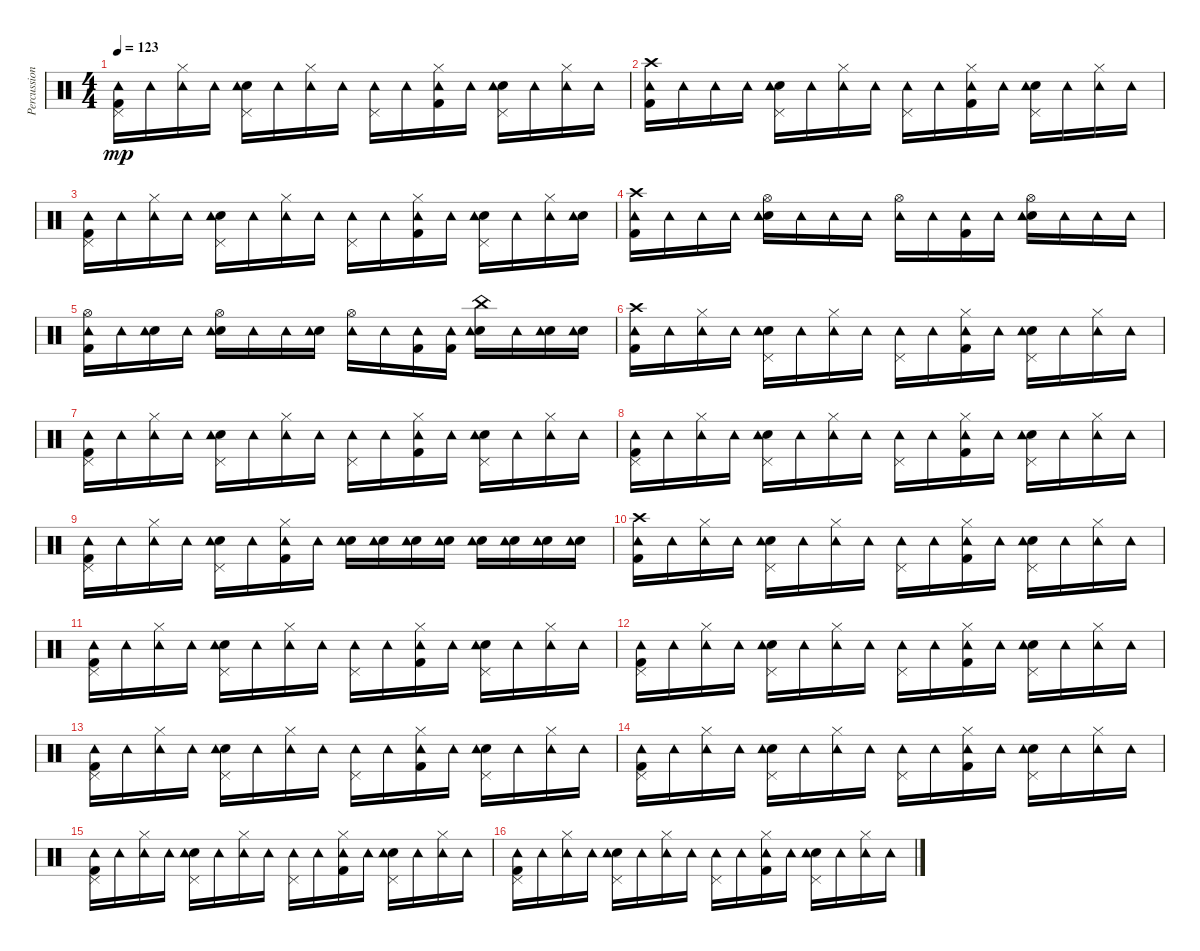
\track ("Percussions" "Percussion") {instrument percussion}
\staff {score}
\articulation defaults
\ts (4 4)
\tempo 123
\clef neutral
\ks c
("Kick (hit) 2" "Pedal Hi-Hat (hit)" "Tambourine (hit)").16{dy mp} "Tambourine (hit)".16 ("Hi-Hat (closed)" "Tambourine (hit)").16 "Tambourine (hit)".16 ("Snare (hit) 2" "Pedal Hi-Hat (hit)" "Tambourine (hit)").16 "Tambourine (hit)".16 ("Hi-Hat (closed)" "Tambourine (hit)").16 "Tambourine (hit)".16 ("Pedal Hi-Hat (hit)" "Tambourine (hit)").16 "Tambourine (hit)".16 ("Kick (hit) 2" "Hi-Hat (closed)" "Tambourine (hit)").16 "Tambourine (hit)".16 ("Snare (hit) 2" "Pedal Hi-Hat (hit)" "Tambourine (hit)").16 "Tambourine (hit)".16 ("Hi-Hat (closed)" "Tambourine (hit)").16 "Tambourine (hit)".16 |
("Kick (hit) 2" "Crash high (hit)" "Tambourine (hit)").16 "Tambourine (hit)".16 "Tambourine (hit)".16 "Tambourine (hit)".16 ("Snare (hit) 2" "Pedal Hi-Hat (hit)" "Tambourine (hit)").16 "Tambourine (hit)".16 ("Hi-Hat (closed)" "Tambourine (hit)").16 "Tambourine (hit)".16 ("Pedal Hi-Hat (hit)" "Tambourine (hit)").16 "Tambourine (hit)".16 ("Kick (hit) 2" "Hi-Hat (closed)" "Tambourine (hit)").16 "Tambourine (hit)".16 ("Snare (hit) 2" "Pedal Hi-Hat (hit)" "Tambourine (hit)").16 "Tambourine (hit)".16 ("Hi-Hat (closed)" "Tambourine (hit)").16 "Tambourine (hit)".16 |
("Kick (hit) 2" "Pedal Hi-Hat (hit)" "Tambourine (hit)").16 "Tambourine (hit)".16 ("Hi-Hat (closed)" "Tambourine (hit)").16 "Tambourine (hit)".16 ("Snare (hit) 2" "Pedal Hi-Hat (hit)" "Tambourine (hit)").16 "Tambourine (hit)".16 ("Hi-Hat (closed)" "Tambourine (hit)").16 "Tambourine (hit)".16 ("Pedal Hi-Hat (hit)" "Tambourine (hit)").16 "Tambourine (hit)".16 ("Kick (hit) 2" "Hi-Hat (closed)" "Tambourine (hit)").16 "Tambourine (hit)".16 ("Snare (hit) 2" "Pedal Hi-Hat (hit)" "Tambourine (hit)").16 "Tambourine (hit)".16 ("Hi-Hat (closed)" "Tambourine (hit)").16 ("Snare (hit) 2" "Tambourine (hit)").16 |
("Kick (hit) 2" "Crash high (hit)" "Tambourine (hit)").16 "Tambourine (hit)".16 "Tambourine (hit)".16 "Tambourine (hit)".16 ("Snare (hit) 2" "Hi-Hat (open)" "Tambourine (hit)").16 "Tambourine (hit)".16 "Tambourine (hit)".16 "Tambourine (hit)".16 ("Hi-Hat (open)" "Tambourine (hit)").16 "Tambourine (hit)".16 ("Kick (hit) 2" "Tambourine (hit)").16 "Tambourine (hit)".16 ("Snare (hit) 2" "Hi-Hat (open)" "Tambourine (hit)").16 "Tambourine (hit)".16 "Tambourine (hit)".16 "Tambourine (hit)".16 |
("Kick (hit) 2" "Hi-Hat (open)" "Tambourine (hit)").16 "Tambourine (hit)".16 ("Snare (hit) 2" "Tambourine (hit)").16 "Tambourine (hit)".16 ("Snare (hit) 2" "Hi-Hat (open)" "Tambourine (hit)").16 "Tambourine (hit)".16 "Tambourine (hit)".16 ("Snare (hit) 2" "Tambourine (hit)").16 ("Hi-Hat (open)" "Tambourine (hit)").16 "Tambourine (hit)".16 ("Kick (hit) 2" "Tambourine (hit)").16 ("Kick (hit) 2" "Tambourine (hit)").16 ("Snare (hit) 2" "China (hit)" "Tambourine (hit)").16 "Tambourine (hit)".16 ("Snare (hit) 2" "Tambourine (hit)").16 ("Snare (hit) 2" "Tambourine (hit)").16 |
("Kick (hit) 2" "Crash high (hit)" "Tambourine (hit)").16 "Tambourine (hit)".16 ("Hi-Hat (closed)" "Tambourine (hit)").16 "Tambourine (hit)".16 ("Snare (hit) 2" "Pedal Hi-Hat (hit)" "Tambourine (hit)").16 "Tambourine (hit)".16 ("Hi-Hat (closed)" "Tambourine (hit)").16 "Tambourine (hit)".16 ("Pedal Hi-Hat (hit)" "Tambourine (hit)").16 "Tambourine (hit)".16 ("Kick (hit) 2" "Hi-Hat (closed)" "Tambourine (hit)").16 "Tambourine (hit)".16 ("Snare (hit) 2" "Pedal Hi-Hat (hit)" "Tambourine (hit)").16 "Tambourine (hit)".16 ("Hi-Hat (closed)" "Tambourine (hit)").16 "Tambourine (hit)".16 |
("Kick (hit) 2" "Pedal Hi-Hat (hit)" "Tambourine (hit)").16 "Tambourine (hit)".16 ("Hi-Hat (closed)" "Tambourine (hit)").16 "Tambourine (hit)".16 ("Snare (hit) 2" "Pedal Hi-Hat (hit)" "Tambourine (hit)").16 "Tambourine (hit)".16 ("Hi-Hat (closed)" "Tambourine (hit)").16 "Tambourine (hit)".16 ("Pedal Hi-Hat (hit)" "Tambourine (hit)").16 "Tambourine (hit)".16 ("Kick (hit) 2" "Hi-Hat (closed)" "Tambourine (hit)").16 "Tambourine (hit)".16 ("Snare (hit) 2" "Pedal Hi-Hat (hit)" "Tambourine (hit)").16 "Tambourine (hit)".16 ("Hi-Hat (closed)" "Tambourine (hit)").16 "Tambourine (hit)".16 |
("Kick (hit) 2" "Pedal Hi-Hat (hit)" "Tambourine (hit)").16 "Tambourine (hit)".16 ("Hi-Hat (closed)" "Tambourine (hit)").16 "Tambourine (hit)".16 ("Snare (hit) 2" "Pedal Hi-Hat (hit)" "Tambourine (hit)").16 "Tambourine (hit)".16 ("Hi-Hat (closed)" "Tambourine (hit)").16 "Tambourine (hit)".16 ("Pedal Hi-Hat (hit)" "Tambourine (hit)").16 "Tambourine (hit)".16 ("Kick (hit) 2" "Hi-Hat (closed)" "Tambourine (hit)").16 "Tambourine (hit)".16 ("Snare (hit) 2" "Pedal Hi-Hat (hit)" "Tambourine (hit)").16 "Tambourine (hit)".16 ("Hi-Hat (closed)" "Tambourine (hit)").16 "Tambourine (hit)".16 |
("Kick (hit) 2" "Pedal Hi-Hat (hit)" "Tambourine (hit)").16 "Tambourine (hit)".16 ("Hi-Hat (closed)" "Tambourine (hit)").16 "Tambourine (hit)".16 ("Snare (hit) 2" "Pedal Hi-Hat (hit)" "Tambourine (hit)").16 "Tambourine (hit)".16 ("Kick (hit) 2" "Hi-Hat (closed)" "Tambourine (hit)").16 "Tambourine (hit)".16 ("Snare (hit) 2" "Tambourine (hit)").16 ("Snare (hit) 2" "Tambourine (hit)").16 ("Snare (hit) 2" "Tambourine (hit)").16 ("Snare (hit) 2" "Tambourine (hit)").16 ("Snare (hit) 2" "Tambourine (hit)").16 ("Snare (hit) 2" "Tambourine (hit)").16 ("Snare (hit) 2" "Tambourine (hit)").16 ("Snare (hit) 2" "Tambourine (hit)").16 |
("Kick (hit) 2" "Crash high (hit)" "Tambourine (hit)").16 "Tambourine (hit)".16 ("Hi-Hat (closed)" "Tambourine (hit)").16 "Tambourine (hit)".16 ("Snare (hit) 2" "Pedal Hi-Hat (hit)" "Tambourine (hit)").16 "Tambourine (hit)".16 ("Hi-Hat (closed)" "Tambourine (hit)").16 "Tambourine (hit)".16 ("Pedal Hi-Hat (hit)" "Tambourine (hit)").16 "Tambourine (hit)".16 ("Kick (hit) 2" "Hi-Hat (closed)" "Tambourine (hit)").16 "Tambourine (hit)".16 ("Snare (hit) 2" "Pedal Hi-Hat (hit)" "Tambourine (hit)").16 "Tambourine (hit)".16 ("Hi-Hat (closed)" "Tambourine (hit)").16 "Tambourine (hit)".16 |
("Kick (hit) 2" "Pedal Hi-Hat (hit)" "Tambourine (hit)").16 "Tambourine (hit)".16 ("Hi-Hat (closed)" "Tambourine (hit)").16 "Tambourine (hit)".16 ("Snare (hit) 2" "Pedal Hi-Hat (hit)" "Tambourine (hit)").16 "Tambourine (hit)".16 ("Hi-Hat (closed)" "Tambourine (hit)").16 "Tambourine (hit)".16 ("Pedal Hi-Hat (hit)" "Tambourine (hit)").16 "Tambourine (hit)".16 ("Kick (hit) 2" "Hi-Hat (closed)" "Tambourine (hit)").16 "Tambourine (hit)".16 ("Snare (hit) 2" "Pedal Hi-Hat (hit)" "Tambourine (hit)").16 "Tambourine (hit)".16 ("Hi-Hat (closed)" "Tambourine (hit)").16 "Tambourine (hit)".16 |
("Kick (hit) 2" "Pedal Hi-Hat (hit)" "Tambourine (hit)").16 "Tambourine (hit)".16 ("Hi-Hat (closed)" "Tambourine (hit)").16 "Tambourine (hit)".16 ("Snare (hit) 2" "Pedal Hi-Hat (hit)" "Tambourine (hit)").16 "Tambourine (hit)".16 ("Hi-Hat (closed)" "Tambourine (hit)").16 "Tambourine (hit)".16 ("Pedal Hi-Hat (hit)" "Tambourine (hit)").16 "Tambourine (hit)".16 ("Kick (hit) 2" "Hi-Hat (closed)" "Tambourine (hit)").16 "Tambourine (hit)".16 ("Snare (hit) 2" "Pedal Hi-Hat (hit)" "Tambourine (hit)").16 "Tambourine (hit)".16 ("Hi-Hat (closed)" "Tambourine (hit)").16 "Tambourine (hit)".16 |
("Kick (hit) 2" "Pedal Hi-Hat (hit)" "Tambourine (hit)").16 "Tambourine (hit)".16 ("Hi-Hat (closed)" "Tambourine (hit)").16 "Tambourine (hit)".16 ("Snare (hit) 2" "Pedal Hi-Hat (hit)" "Tambourine (hit)").16 "Tambourine (hit)".16 ("Hi-Hat (closed)" "Tambourine (hit)").16 "Tambourine (hit)".16 ("Pedal Hi-Hat (hit)" "Tambourine (hit)").16 "Tambourine (hit)".16 ("Kick (hit) 2" "Hi-Hat (closed)" "Tambourine (hit)").16 "Tambourine (hit)".16 ("Snare (hit) 2" "Pedal Hi-Hat (hit)" "Tambourine (hit)").16 "Tambourine (hit)".16 ("Hi-Hat (closed)" "Tambourine (hit)").16 "Tambourine (hit)".16 |
("Kick (hit) 2" "Pedal Hi-Hat (hit)" "Tambourine (hit)").16 "Tambourine (hit)".16 ("Hi-Hat (closed)" "Tambourine (hit)").16 "Tambourine (hit)".16 ("Snare (hit) 2" "Pedal Hi-Hat (hit)" "Tambourine (hit)").16 "Tambourine (hit)".16 ("Hi-Hat (closed)" "Tambourine (hit)").16 "Tambourine (hit)".16 ("Pedal Hi-Hat (hit)" "Tambourine (hit)").16 "Tambourine (hit)".16 ("Kick (hit) 2" "Hi-Hat (closed)" "Tambourine (hit)").16 "Tambourine (hit)".16 ("Snare (hit) 2" "Pedal Hi-Hat (hit)" "Tambourine (hit)").16 "Tambourine (hit)".16 ("Hi-Hat (closed)" "Tambourine (hit)").16 "Tambourine (hit)".16 |
("Kick (hit) 2" "Pedal Hi-Hat (hit)" "Tambourine (hit)").16 "Tambourine (hit)".16 ("Hi-Hat (closed)" "Tambourine (hit)").16 "Tambourine (hit)".16 ("Snare (hit) 2" "Pedal Hi-Hat (hit)" "Tambourine (hit)").16 "Tambourine (hit)".16 ("Hi-Hat (closed)" "Tambourine (hit)").16 "Tambourine (hit)".16 ("Pedal Hi-Hat (hit)" "Tambourine (hit)").16 "Tambourine (hit)".16 ("Kick (hit) 2" "Hi-Hat (closed)" "Tambourine (hit)").16 "Tambourine (hit)".16 ("Snare (hit) 2" "Pedal Hi-Hat (hit)" "Tambourine (hit)").16 "Tambourine (hit)".16 ("Hi-Hat (closed)" "Tambourine (hit)").16 "Tambourine (hit)".16 |
("Kick (hit) 2" "Pedal Hi-Hat (hit)" "Tambourine (hit)").16 "Tambourine (hit)".16 ("Hi-Hat (closed)" "Tambourine (hit)").16 "Tambourine (hit)".16 ("Snare (hit) 2" "Pedal Hi-Hat (hit)" "Tambourine (hit)").16 "Tambourine (hit)".16 ("Hi-Hat (closed)" "Tambourine (hit)").16 "Tambourine (hit)".16 ("Pedal Hi-Hat (hit)" "Tambourine (hit)").16 "Tambourine (hit)".16 ("Kick (hit) 2" "Hi-Hat (closed)" "Tambourine (hit)").16 "Tambourine (hit)".16 ("Snare (hit) 2" "Pedal Hi-Hat (hit)" "Tambourine (hit)").16 "Tambourine (hit)".16 ("Hi-Hat (closed)" "Tambourine (hit)").16 "Tambourine (hit)".16
